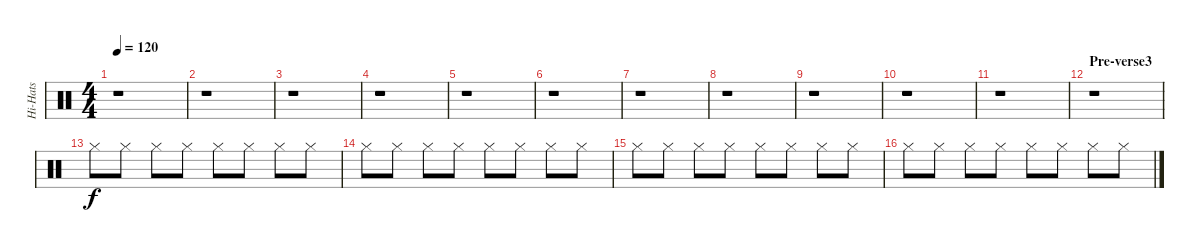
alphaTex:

\track ("Hi-Hats" "Hi-Hats") {instrument percussion}
\staff {score}
\articulation defaults
\ts (4 4)
\tempo 120
\clef neutral
\ks c
r.1{dy f} |
r.1 |
r.1 |
r.1 |
r.1 |
r.1 |
r.1 |
r.1 |
r.1 |
r.1 |
r.1 |
\section ("" "Pre-verse3")
r.1 |
"Hi-Hat (closed)".8 "Hi-Hat (closed)".8 "Hi-Hat (closed)".8 "Hi-Hat (closed)".8 "Hi-Hat (closed)".8 "Hi-Hat (closed)".8 "Hi-Hat (closed)".8 "Hi-Hat (closed)".8 |
"Hi-Hat (closed)".8 "Hi-Hat (closed)".8 "Hi-Hat (closed)".8 "Hi-Hat (closed)".8 "Hi-Hat (closed)".8 "Hi-Hat (closed)".8 "Hi-Hat (closed)".8 "Hi-Hat (closed)".8 |
"Hi-Hat (closed)".8 "Hi-Hat (closed)".8 "Hi-Hat (closed)".8 "Hi-Hat (closed)".8 "Hi-Hat (closed)".8 "Hi-Hat (closed)".8 "Hi-Hat (closed)".8 "Hi-Hat (closed)".8 |
"Hi-Hat (closed)".8 "Hi-Hat (closed)".8 "Hi-Hat (closed)".8 "Hi-Hat (closed)".8 "Hi-Hat (closed)".8 "Hi-Hat (closed)".8 "Hi-Hat (closed)".8 "Hi-Hat (closed)".8
